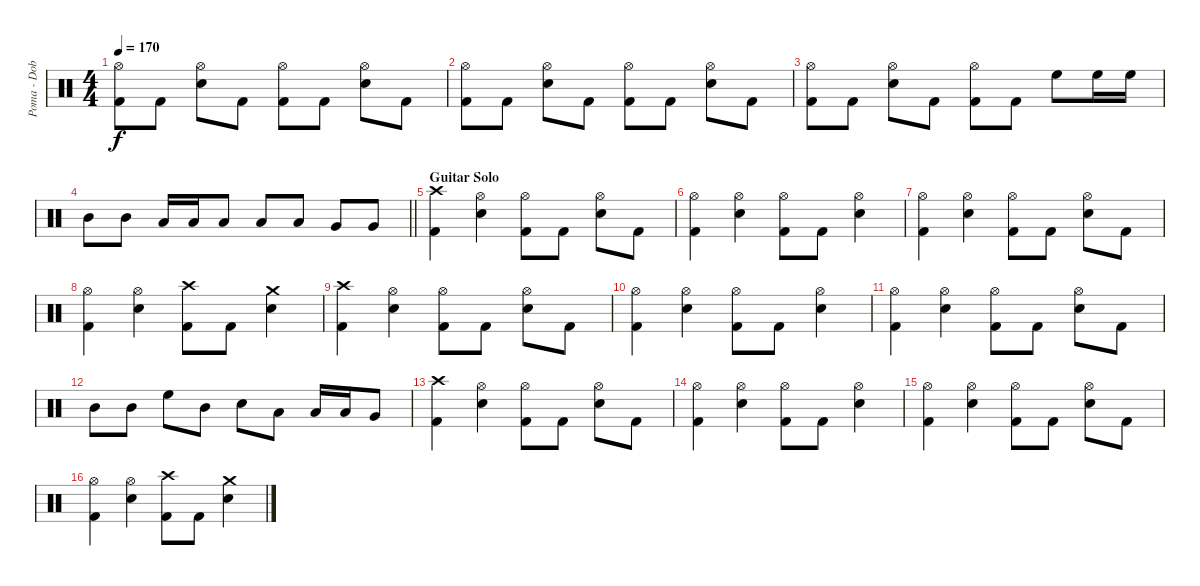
\track ("Poma - Dob" "Poma - Dob") {instrument percussion}
\staff {score}
\articulation defaults
\ts (4 4)
\tempo 170
\clef neutral
\ks c
("Hi-Hat (open)" "Kick (hit) 2").8{dy f} "Kick (hit) 2".8 ("Hi-Hat (open)" "Electric Snare (hit)").8 "Kick (hit) 2".8 ("Hi-Hat (open)" "Kick (hit) 2").8 "Kick (hit) 2".8 ("Hi-Hat (open)" "Electric Snare (hit)").8 "Kick (hit) 2".8 |
("Hi-Hat (open)" "Kick (hit) 2").8 "Kick (hit) 2".8 ("Hi-Hat (open)" "Electric Snare (hit)").8 "Kick (hit) 2".8 ("Hi-Hat (open)" "Kick (hit) 2").8 "Kick (hit) 2".8 ("Hi-Hat (open)" "Electric Snare (hit)").8 "Kick (hit) 2".8 |
("Hi-Hat (open)" "Kick (hit) 2").8 "Kick (hit) 2".8 ("Hi-Hat (open)" "Electric Snare (hit)").8 "Kick (hit) 2".8 ("Hi-Hat (open)" "Kick (hit) 2").8 "Kick (hit) 2".8 "High Floor Tom (hit)".8 "High Floor Tom (hit)".16 "High Floor Tom (hit)".16 |
\barLineRight lightlight "Mid Tom (hit)".8 "Mid Tom (hit)".8 "Low Tom (hit)".16 "Low Tom (hit)".16 "Low Tom (hit)".8 "Low Tom (hit)".8 "Low Tom (hit)".8 "Very Low Tom (hit)".8 "Very Low Tom (hit)".8
|
\section ("" "Guitar Solo")
("Crash high (hit)" "Kick (hit) 2").4 ("Hi-Hat (open)" "Electric Snare (hit)").4 ("Hi-Hat (open)" "Kick (hit) 2").8 "Kick (hit) 2".8 ("Hi-Hat (open)" "Electric Snare (hit)").8 "Kick (hit) 2".8 |
("Hi-Hat (open)" "Kick (hit) 2").4 ("Hi-Hat (open)" "Electric Snare (hit)").4 ("Hi-Hat (open)" "Kick (hit) 2").8 "Kick (hit) 2".8 ("Hi-Hat (open)" "Electric Snare (hit)").4 |
("Hi-Hat (open)" "Kick (hit) 2").4 ("Hi-Hat (open)" "Electric Snare (hit)").4 ("Hi-Hat (open)" "Kick (hit) 2").8 "Kick (hit) 2".8 ("Hi-Hat (open)" "Electric Snare (hit)").8 "Kick (hit) 2".8 |
("Hi-Hat (open)" "Kick (hit) 2").4 ("Hi-Hat (open)" "Electric Snare (hit)").4 ("Crash high (hit)" "Kick (hit) 2").8 "Kick (hit) 2".8 ("Crash medium (hit)" "Electric Snare (hit)").4 |
("Crash high (hit)" "Kick (hit) 2").4 ("Hi-Hat (open)" "Electric Snare (hit)").4 ("Hi-Hat (open)" "Kick (hit) 2").8 "Kick (hit) 2".8 ("Hi-Hat (open)" "Electric Snare (hit)").8 "Kick (hit) 2".8 |
("Hi-Hat (open)" "Kick (hit) 2").4 ("Hi-Hat (open)" "Electric Snare (hit)").4 ("Hi-Hat (open)" "Kick (hit) 2").8 "Kick (hit) 2".8 ("Hi-Hat (open)" "Electric Snare (hit)").4 |
("Hi-Hat (open)" "Kick (hit) 2").4 ("Hi-Hat (open)" "Electric Snare (hit)").4 ("Hi-Hat (open)" "Kick (hit) 2").8 "Kick (hit) 2".8 ("Hi-Hat (open)" "Electric Snare (hit)").8 "Kick (hit) 2".8 |
"Mid Tom (hit)".8 "Mid Tom (hit)".8 "High Floor Tom (hit)".8 "Mid Tom (hit)".8 "Electric Snare (hit)".8 "Low Tom (hit)".8 "Low Tom (hit)".16 "Low Tom (hit)".16 "Very Low Tom (hit)".8 |
("Crash high (hit)" "Kick (hit) 2").4 ("Hi-Hat (open)" "Electric Snare (hit)").4 ("Hi-Hat (open)" "Kick (hit) 2").8 "Kick (hit) 2".8 ("Hi-Hat (open)" "Electric Snare (hit)").8 "Kick (hit) 2".8 |
("Hi-Hat (open)" "Kick (hit) 2").4 ("Hi-Hat (open)" "Electric Snare (hit)").4 ("Hi-Hat (open)" "Kick (hit) 2").8 "Kick (hit) 2".8 ("Hi-Hat (open)" "Electric Snare (hit)").4 |
("Hi-Hat (open)" "Kick (hit) 2").4 ("Hi-Hat (open)" "Electric Snare (hit)").4 ("Hi-Hat (open)" "Kick (hit) 2").8 "Kick (hit) 2".8 ("Hi-Hat (open)" "Electric Snare (hit)").8 "Kick (hit) 2".8 |
("Hi-Hat (open)" "Kick (hit) 2").4 ("Hi-Hat (open)" "Electric Snare (hit)").4 ("Crash high (hit)" "Kick (hit) 2").8 "Kick (hit) 2".8 ("Crash medium (hit)" "Electric Snare (hit)").4
